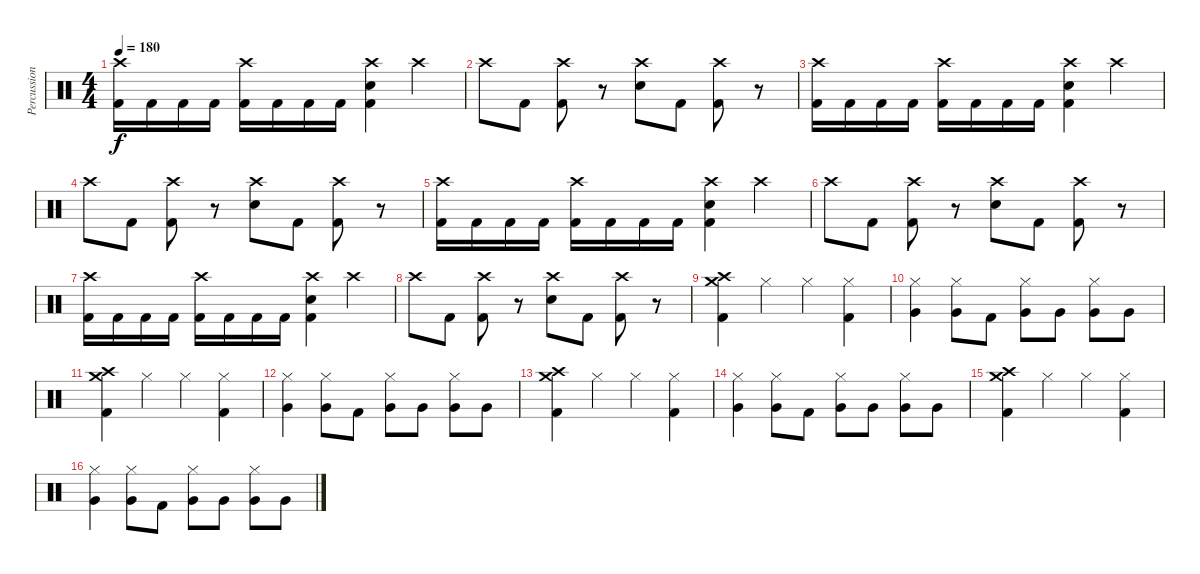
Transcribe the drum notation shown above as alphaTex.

\track ("Percussion" "Percussion") {instrument percussion}
\staff {score}
\articulation defaults
\ts (4 4)
\tempo 180
\clef neutral
\ks c
("Crash high (hit)" "Kick (hit) 2").16{dy f} "Kick (hit) 2".16 "Kick (hit) 2".16 "Kick (hit) 2".16 ("Crash high (hit)" "Kick (hit) 2").16 "Kick (hit) 2".16 "Kick (hit) 2".16 "Kick (hit) 2".16 ("Crash high (hit)" "Electric Snare (hit)" "Kick (hit) 2").4 "Crash high (hit)".4 |
"Crash high (hit)".8 "Kick (hit) 2".8 ("Crash high (hit)" "Kick (hit) 2").8 r.8 ("Crash high (hit)" "Electric Snare (hit)").8 "Kick (hit) 2".8 ("Crash high (hit)" "Kick (hit) 2").8 r.8 |
("Crash high (hit)" "Kick (hit) 2").16 "Kick (hit) 2".16 "Kick (hit) 2".16 "Kick (hit) 2".16 ("Crash high (hit)" "Kick (hit) 2").16 "Kick (hit) 2".16 "Kick (hit) 2".16 "Kick (hit) 2".16 ("Crash high (hit)" "Electric Snare (hit)" "Kick (hit) 2").4 "Crash high (hit)".4 |
"Crash high (hit)".8 "Kick (hit) 2".8 ("Crash high (hit)" "Kick (hit) 2").8 r.8 ("Crash high (hit)" "Electric Snare (hit)").8 "Kick (hit) 2".8 ("Crash high (hit)" "Kick (hit) 2").8 r.8 |
("Crash high (hit)" "Kick (hit) 2").16 "Kick (hit) 2".16 "Kick (hit) 2".16 "Kick (hit) 2".16 ("Crash high (hit)" "Kick (hit) 2").16 "Kick (hit) 2".16 "Kick (hit) 2".16 "Kick (hit) 2".16 ("Crash high (hit)" "Electric Snare (hit)" "Kick (hit) 2").4 "Crash high (hit)".4 |
"Crash high (hit)".8 "Kick (hit) 2".8 ("Crash high (hit)" "Kick (hit) 2").8 r.8 ("Crash high (hit)" "Electric Snare (hit)").8 "Kick (hit) 2".8 ("Crash high (hit)" "Kick (hit) 2").8 r.8 |
("Crash high (hit)" "Kick (hit) 2").16 "Kick (hit) 2".16 "Kick (hit) 2".16 "Kick (hit) 2".16 ("Crash high (hit)" "Kick (hit) 2").16 "Kick (hit) 2".16 "Kick (hit) 2".16 "Kick (hit) 2".16 ("Crash high (hit)" "Electric Snare (hit)" "Kick (hit) 2").4 "Crash high (hit)".4 |
"Crash high (hit)".8 "Kick (hit) 2".8 ("Crash high (hit)" "Kick (hit) 2").8 r.8 ("Crash high (hit)" "Electric Snare (hit)").8 "Kick (hit) 2".8 ("Crash high (hit)" "Kick (hit) 2").8 r.8 |
("Crash high (hit)" "Crash medium (hit)" "Kick (hit) 2").4 "Hi-Hat (closed)".4 "Hi-Hat (closed)".4 ("Hi-Hat (closed)" "Kick (hit) 2").4 |
("Hi-Hat (closed)" "Very Low Tom (hit)").4 ("Hi-Hat (closed)" "Very Low Tom (hit)").8 "Kick (hit) 2".8 ("Hi-Hat (closed)" "Very Low Tom (hit)").8 "Very Low Tom (hit)".8 ("Hi-Hat (closed)" "Very Low Tom (hit)").8 "Very Low Tom (hit)".8 |
("Crash high (hit)" "Crash medium (hit)" "Kick (hit) 2").4 "Hi-Hat (closed)".4 "Hi-Hat (closed)".4 ("Hi-Hat (closed)" "Kick (hit) 2").4 |
("Hi-Hat (closed)" "Very Low Tom (hit)").4 ("Hi-Hat (closed)" "Very Low Tom (hit)").8 "Kick (hit) 2".8 ("Hi-Hat (closed)" "Very Low Tom (hit)").8 "Very Low Tom (hit)".8 ("Hi-Hat (closed)" "Very Low Tom (hit)").8 "Very Low Tom (hit)".8 |
("Crash high (hit)" "Crash medium (hit)" "Kick (hit) 2").4 "Hi-Hat (closed)".4 "Hi-Hat (closed)".4 ("Hi-Hat (closed)" "Kick (hit) 2").4 |
("Hi-Hat (closed)" "Very Low Tom (hit)").4 ("Hi-Hat (closed)" "Very Low Tom (hit)").8 "Kick (hit) 2".8 ("Hi-Hat (closed)" "Very Low Tom (hit)").8 "Very Low Tom (hit)".8 ("Hi-Hat (closed)" "Very Low Tom (hit)").8 "Very Low Tom (hit)".8 |
("Crash high (hit)" "Crash medium (hit)" "Kick (hit) 2").4 "Hi-Hat (closed)".4 "Hi-Hat (closed)".4 ("Hi-Hat (closed)" "Kick (hit) 2").4 |
("Hi-Hat (closed)" "Very Low Tom (hit)").4 ("Hi-Hat (closed)" "Very Low Tom (hit)").8 "Kick (hit) 2".8 ("Hi-Hat (closed)" "Very Low Tom (hit)").8 "Very Low Tom (hit)".8 ("Hi-Hat (closed)" "Very Low Tom (hit)").8 "Very Low Tom (hit)".8
